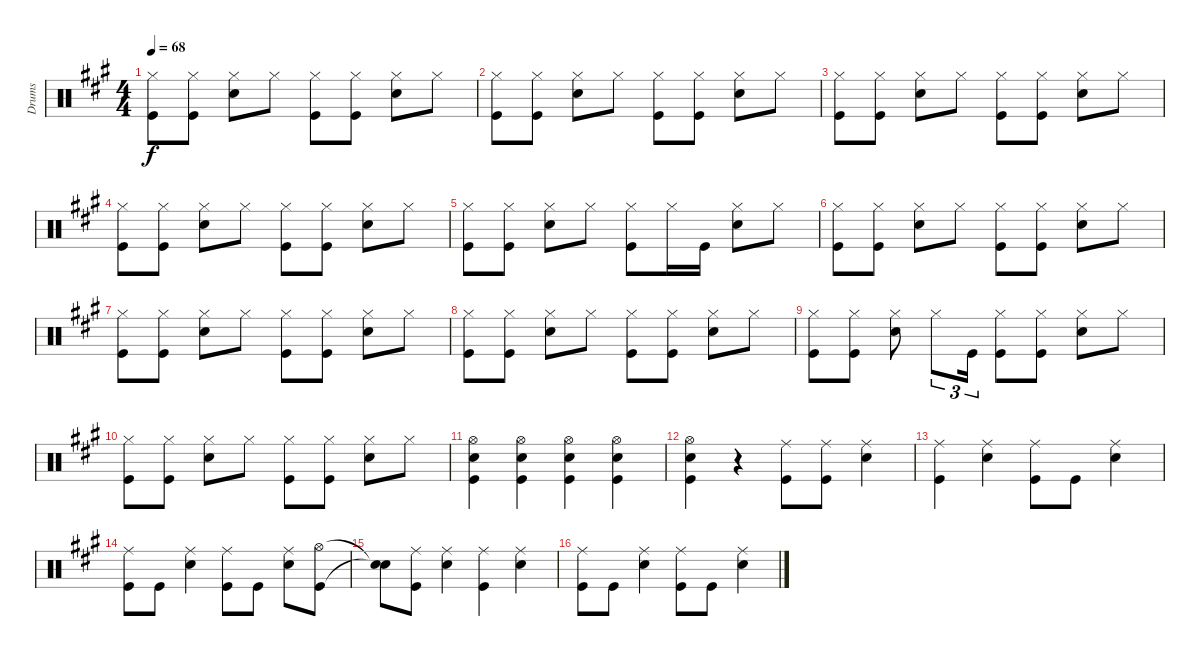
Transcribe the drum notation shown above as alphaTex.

\track ("Drums" "Drums") {instrument percussion}
\staff {score}
\articulation defaults
\ts (4 4)
\tempo 68
\clef neutral
\ks a
("Hi-Hat (closed)" "Kick (hit)").8{dy f} ("Hi-Hat (closed)" "Kick (hit)").8 ("Hi-Hat (closed)" "Electric Snare (hit)").8 "Hi-Hat (closed)".8 ("Hi-Hat (closed)" "Kick (hit)").8 ("Hi-Hat (closed)" "Kick (hit)").8 ("Hi-Hat (closed)" "Electric Snare (hit)").8 "Hi-Hat (closed)".8 |
("Hi-Hat (closed)" "Kick (hit)").8 ("Hi-Hat (closed)" "Kick (hit)").8 ("Hi-Hat (closed)" "Electric Snare (hit)").8 "Hi-Hat (closed)".8 ("Hi-Hat (closed)" "Kick (hit)").8 ("Hi-Hat (closed)" "Kick (hit)").8 ("Hi-Hat (closed)" "Electric Snare (hit)").8 "Hi-Hat (closed)".8 |
("Hi-Hat (closed)" "Kick (hit)").8 ("Hi-Hat (closed)" "Kick (hit)").8 ("Hi-Hat (closed)" "Electric Snare (hit)").8 "Hi-Hat (closed)".8 ("Hi-Hat (closed)" "Kick (hit)").8 ("Hi-Hat (closed)" "Kick (hit)").8 ("Hi-Hat (closed)" "Electric Snare (hit)").8 "Hi-Hat (closed)".8 |
("Hi-Hat (closed)" "Kick (hit)").8 ("Hi-Hat (closed)" "Kick (hit)").8 ("Hi-Hat (closed)" "Electric Snare (hit)").8 "Hi-Hat (closed)".8 ("Hi-Hat (closed)" "Kick (hit)").8 ("Hi-Hat (closed)" "Kick (hit)").8 ("Hi-Hat (closed)" "Electric Snare (hit)").8 "Hi-Hat (closed)".8 |
("Hi-Hat (closed)" "Kick (hit)").8 ("Hi-Hat (closed)" "Kick (hit)").8 ("Hi-Hat (closed)" "Electric Snare (hit)").8 "Hi-Hat (closed)".8 ("Hi-Hat (closed)" "Kick (hit)").8 "Hi-Hat (closed)".16 "Kick (hit)".16 ("Hi-Hat (closed)" "Electric Snare (hit)").8 "Hi-Hat (closed)".8 |
("Hi-Hat (closed)" "Kick (hit)").8 ("Hi-Hat (closed)" "Kick (hit)").8 ("Hi-Hat (closed)" "Electric Snare (hit)").8 "Hi-Hat (closed)".8 ("Hi-Hat (closed)" "Kick (hit)").8 ("Hi-Hat (closed)" "Kick (hit)").8 ("Hi-Hat (closed)" "Electric Snare (hit)").8 "Hi-Hat (closed)".8 |
("Hi-Hat (closed)" "Kick (hit)").8 ("Hi-Hat (closed)" "Kick (hit)").8 ("Hi-Hat (closed)" "Electric Snare (hit)").8 "Hi-Hat (closed)".8 ("Hi-Hat (closed)" "Kick (hit)").8 ("Hi-Hat (closed)" "Kick (hit)").8 ("Hi-Hat (closed)" "Electric Snare (hit)").8 "Hi-Hat (closed)".8 |
("Hi-Hat (closed)" "Kick (hit)").8 ("Hi-Hat (closed)" "Kick (hit)").8 ("Hi-Hat (closed)" "Electric Snare (hit)").8 "Hi-Hat (closed)".8 ("Hi-Hat (closed)" "Kick (hit)").8 ("Hi-Hat (closed)" "Kick (hit)").8 ("Hi-Hat (closed)" "Electric Snare (hit)").8 "Hi-Hat (closed)".8 |
("Hi-Hat (closed)" "Kick (hit)").8 ("Hi-Hat (closed)" "Kick (hit)").8 ("Hi-Hat (closed)" "Electric Snare (hit)").8 "Hi-Hat (closed)".8{tu (3 2)} "Kick (hit)".16{tu (3 2)} ("Hi-Hat (closed)" "Kick (hit)").8 ("Hi-Hat (closed)" "Kick (hit)").8 ("Hi-Hat (closed)" "Electric Snare (hit)").8 "Hi-Hat (closed)".8 |
("Hi-Hat (closed)" "Kick (hit)").8 ("Hi-Hat (closed)" "Kick (hit)").8 ("Hi-Hat (closed)" "Electric Snare (hit)").8 "Hi-Hat (closed)".8 ("Hi-Hat (closed)" "Kick (hit)").8 ("Hi-Hat (closed)" "Kick (hit)").8 ("Hi-Hat (closed)" "Electric Snare (hit)").8 "Hi-Hat (closed)".8 |
("Hi-Hat (open)" "Electric Snare (hit)" "Kick (hit)").4 ("Hi-Hat (open)" "Electric Snare (hit)" "Kick (hit)").4 ("Hi-Hat (open)" "Electric Snare (hit)" "Kick (hit)").4 ("Hi-Hat (open)" "Electric Snare (hit)" "Kick (hit)").4 |
("Hi-Hat (open)" "Electric Snare (hit)" "Kick (hit)").4 r.4 ("Ride (middle)" "Kick (hit)").8 ("Ride (middle)" "Kick (hit)").8 ("Ride (middle)" "Electric Snare (hit)").4 |
("Ride (middle)" "Kick (hit)").4 ("Ride (middle)" "Electric Snare (hit)").4 ("Ride (middle)" "Kick (hit)").8 "Kick (hit)".8 ("Ride (middle)" "Electric Snare (hit)").4 |
("Ride (middle)" "Kick (hit)").8 "Kick (hit)".8 ("Ride (middle)" "Electric Snare (hit)").4 ("Ride (middle)" "Kick (hit)").8 "Kick (hit)".8 ("Ride (middle)" "Electric Snare (hit)").8 ("Hi-Hat (open)" "Kick (hit)").8 |
("Snare (hit)"{t} "Snare (hit)"{t}).8 ("Ride (middle)" "Kick (hit)").8 ("Ride (middle)" "Electric Snare (hit)").4 ("Ride (middle)" "Kick (hit)").4 ("Ride (middle)" "Electric Snare (hit)").4 |
("Ride (middle)" "Kick (hit)").8 "Kick (hit)".8 ("Ride (middle)" "Electric Snare (hit)").4 ("Ride (middle)" "Kick (hit)").8 "Kick (hit)".8 ("Ride (middle)" "Electric Snare (hit)").4
